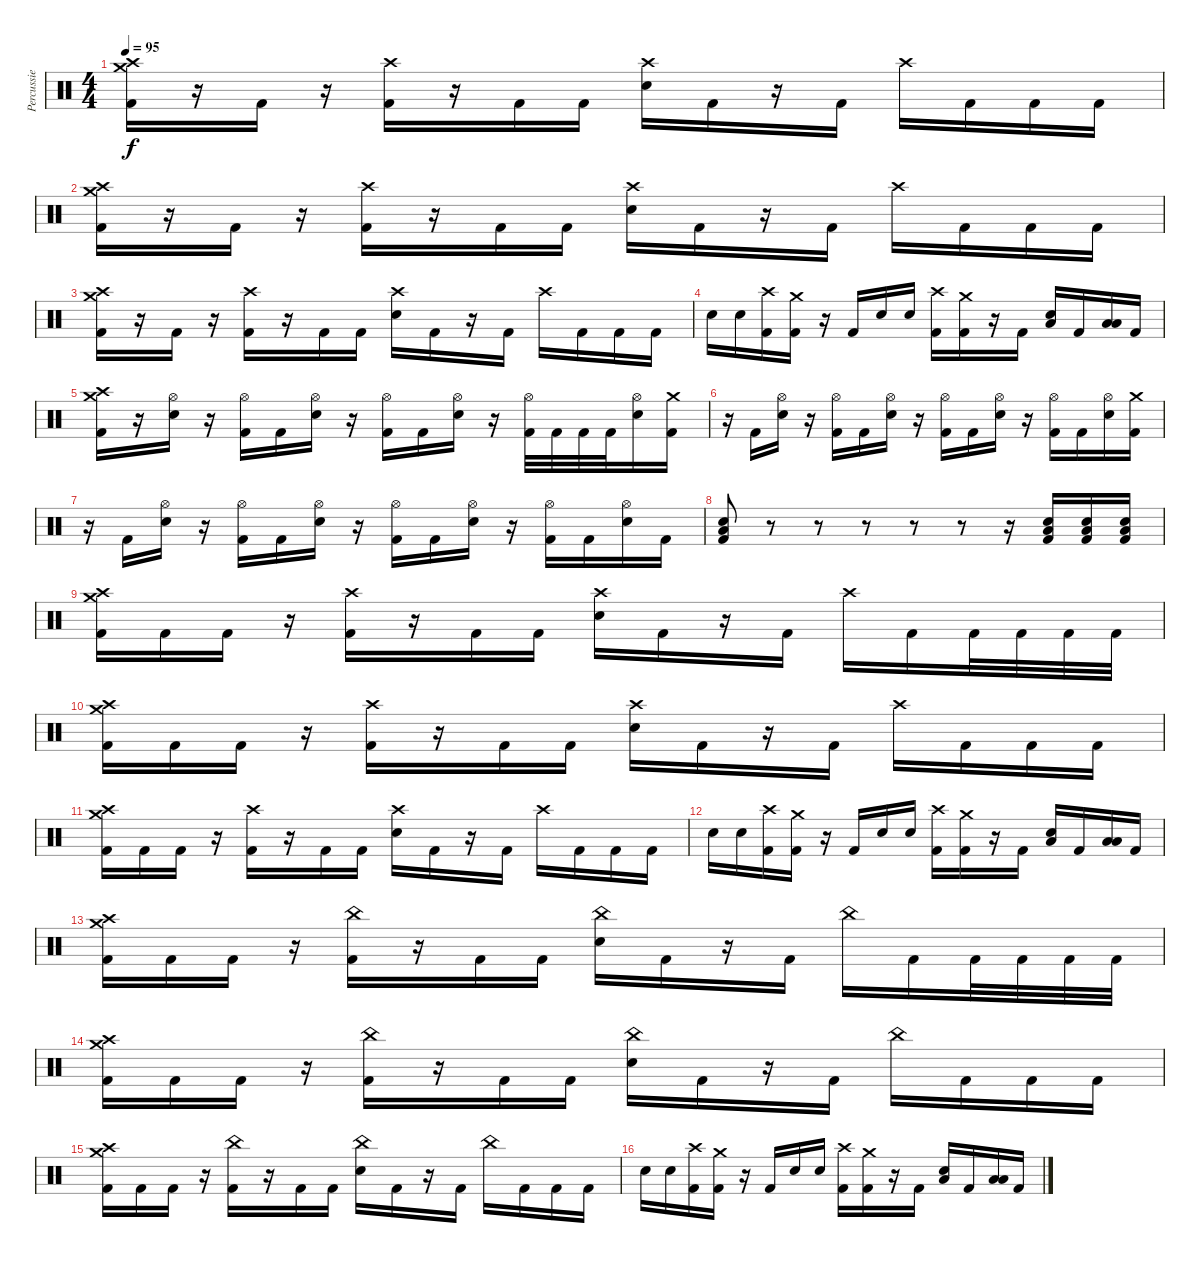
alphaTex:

\track ("Percussie" "Percussie") {instrument percussion}
\staff {score}
\articulation defaults
\ts (4 4)
\tempo 95
\clef neutral
\ks c
("Crash medium (hit)" "Crash high (hit)" "Kick (hit) 2").16{dy f} r.16 "Kick (hit) 2".16 r.16 ("Crash high (hit)" "Kick (hit) 2").16 r.16 "Kick (hit) 2".16 "Kick (hit) 2".16 ("Crash high (hit)" "Electric Snare (hit)").16 "Kick (hit) 2".16 r.16 "Kick (hit) 2".16 "Crash high (hit)".16 "Kick (hit) 2".16 "Kick (hit) 2".16 "Kick (hit) 2".16 |
("Crash medium (hit)" "Crash high (hit)" "Kick (hit) 2").16 r.16 "Kick (hit) 2".16 r.16 ("Crash high (hit)" "Kick (hit) 2").16 r.16 "Kick (hit) 2".16 "Kick (hit) 2".16 ("Crash high (hit)" "Electric Snare (hit)").16 "Kick (hit) 2".16 r.16 "Kick (hit) 2".16 "Crash high (hit)".16 "Kick (hit) 2".16 "Kick (hit) 2".16 "Kick (hit) 2".16 |
("Crash medium (hit)" "Crash high (hit)" "Kick (hit) 2").16 r.16 "Kick (hit) 2".16 r.16 ("Crash high (hit)" "Kick (hit) 2").16 r.16 "Kick (hit) 2".16 "Kick (hit) 2".16 ("Crash high (hit)" "Electric Snare (hit)").16 "Kick (hit) 2".16 r.16 "Kick (hit) 2".16 "Crash high (hit)".16 "Kick (hit) 2".16 "Kick (hit) 2".16 "Kick (hit) 2".16 |
"Electric Snare (hit)".16 "Electric Snare (hit)".16 ("Crash high (hit)" "Kick (hit) 2").16 ("Crash medium (hit)" "Kick (hit) 2").16 r.16 "Kick (hit) 2".16 "Electric Snare (hit)".16 "Electric Snare (hit)".16 ("Crash high (hit)" "Kick (hit) 2").16 ("Crash medium (hit)" "Kick (hit) 2").16 r.16 "Kick (hit) 2".16 ("Low Floor Tom (hit)" "Electric Snare (hit)").16 "Kick (hit) 2".16 ("Low Tom (hit)" "Low Floor Tom (hit)").16 "Kick (hit) 2".16 |
("Crash medium (hit)" "Crash high (hit)" "Kick (hit) 2").16 r.16 ("Hi-Hat (open)" "Electric Snare (hit)").16 r.16 ("Hi-Hat (open)" "Kick (hit) 2").16 "Kick (hit) 2".16 ("Hi-Hat (open)" "Electric Snare (hit)").16 r.16 ("Hi-Hat (open)" "Kick (hit) 2").16 "Kick (hit) 2".16 ("Hi-Hat (open)" "Electric Snare (hit)").16 r.16 ("Hi-Hat (open)" "Kick (hit) 2").32 "Kick (hit) 2".32 "Kick (hit) 2".32 "Kick (hit) 2".32 ("Hi-Hat (open)" "Electric Snare (hit)").16 ("Crash medium (hit)" "Kick (hit) 2").16 |
r.16 "Kick (hit) 2".16 ("Hi-Hat (open)" "Electric Snare (hit)").16 r.16 ("Hi-Hat (open)" "Kick (hit) 2").16 "Kick (hit) 2".16 ("Hi-Hat (open)" "Electric Snare (hit)").16 r.16 ("Hi-Hat (open)" "Kick (hit) 2").16 "Kick (hit) 2".16 ("Hi-Hat (open)" "Electric Snare (hit)").16 r.16 ("Hi-Hat (open)" "Kick (hit) 2").16 "Kick (hit) 2".16 ("Hi-Hat (open)" "Electric Snare (hit)").16 ("Crash medium (hit)" "Kick (hit) 2").16 |
r.16 "Kick (hit) 2".16 ("Hi-Hat (open)" "Electric Snare (hit)").16 r.16 ("Hi-Hat (open)" "Kick (hit) 2").16 "Kick (hit) 2".16 ("Hi-Hat (open)" "Electric Snare (hit)").16 r.16 ("Hi-Hat (open)" "Kick (hit) 2").16 "Kick (hit) 2".16 ("Hi-Hat (open)" "Electric Snare (hit)").16 r.16 ("Hi-Hat (open)" "Kick (hit) 2").16 "Kick (hit) 2".16 ("Hi-Hat (open)" "Electric Snare (hit)").16 "Kick (hit) 2".16 |
("Low Floor Tom (hit)" "Electric Snare (hit)" "Kick (hit) 2").8 r.8 r.8 r.8 r.8 r.8 r.16 ("Electric Snare (hit)" "Low Floor Tom (hit)" "Kick (hit) 2").16 ("Electric Snare (hit)" "Low Floor Tom (hit)" "Kick (hit) 2").16 ("Electric Snare (hit)" "Low Floor Tom (hit)" "Kick (hit) 2").16 |
("Crash medium (hit)" "Crash high (hit)" "Kick (hit) 2").16 "Kick (hit) 2".16 "Kick (hit) 2".16 r.16 ("Crash high (hit)" "Kick (hit) 2").16 r.16 "Kick (hit) 2".16 "Kick (hit) 2".16 ("Crash high (hit)" "Electric Snare (hit)").16 "Kick (hit) 2".16 r.16 "Kick (hit) 2".16 "Crash high (hit)".16 "Kick (hit) 2".16 "Kick (hit) 2".32 "Kick (hit) 2".32 "Kick (hit) 2".32 "Kick (hit) 2".32 |
("Crash medium (hit)" "Crash high (hit)" "Kick (hit) 2").16 "Kick (hit) 2".16 "Kick (hit) 2".16 r.16 ("Crash high (hit)" "Kick (hit) 2").16 r.16 "Kick (hit) 2".16 "Kick (hit) 2".16 ("Crash high (hit)" "Electric Snare (hit)").16 "Kick (hit) 2".16 r.16 "Kick (hit) 2".16 "Crash high (hit)".16 "Kick (hit) 2".16 "Kick (hit) 2".16 "Kick (hit) 2".16 |
("Crash medium (hit)" "Crash high (hit)" "Kick (hit) 2").16 "Kick (hit) 2".16 "Kick (hit) 2".16 r.16 ("Crash high (hit)" "Kick (hit) 2").16 r.16 "Kick (hit) 2".16 "Kick (hit) 2".16 ("Crash high (hit)" "Electric Snare (hit)").16 "Kick (hit) 2".16 r.16 "Kick (hit) 2".16 "Crash high (hit)".16 "Kick (hit) 2".16 "Kick (hit) 2".16 "Kick (hit) 2".16 |
"Electric Snare (hit)".16 "Electric Snare (hit)".16 ("Crash high (hit)" "Kick (hit) 2").16 ("Crash medium (hit)" "Kick (hit) 2").16 r.16 "Kick (hit) 2".16 "Electric Snare (hit)".16 "Electric Snare (hit)".16 ("Crash high (hit)" "Kick (hit) 2").16 ("Crash medium (hit)" "Kick (hit) 2").16 r.16 "Kick (hit) 2".16 ("Low Floor Tom (hit)" "Electric Snare (hit)").16 "Kick (hit) 2".16 ("Low Tom (hit)" "Low Floor Tom (hit)").16 "Kick (hit) 2".16 |
("Crash medium (hit)" "Crash high (hit)" "Kick (hit) 2").16 "Kick (hit) 2".16 "Kick (hit) 2".16 r.16 ("China (hit)" "Kick (hit) 2").16 r.16 "Kick (hit) 2".16 "Kick (hit) 2".16 ("China (hit)" "Electric Snare (hit)").16 "Kick (hit) 2".16 r.16 "Kick (hit) 2".16 "China (hit)".16 "Kick (hit) 2".16 "Kick (hit) 2".32 "Kick (hit) 2".32 "Kick (hit) 2".32 "Kick (hit) 2".32 |
("Crash medium (hit)" "Crash high (hit)" "Kick (hit) 2").16 "Kick (hit) 2".16 "Kick (hit) 2".16 r.16 ("China (hit)" "Kick (hit) 2").16 r.16 "Kick (hit) 2".16 "Kick (hit) 2".16 ("China (hit)" "Electric Snare (hit)").16 "Kick (hit) 2".16 r.16 "Kick (hit) 2".16 "China (hit)".16 "Kick (hit) 2".16 "Kick (hit) 2".16 "Kick (hit) 2".16 |
("Crash medium (hit)" "Crash high (hit)" "Kick (hit) 2").16 "Kick (hit) 2".16 "Kick (hit) 2".16 r.16 ("China (hit)" "Kick (hit) 2").16 r.16 "Kick (hit) 2".16 "Kick (hit) 2".16 ("China (hit)" "Electric Snare (hit)").16 "Kick (hit) 2".16 r.16 "Kick (hit) 2".16 "China (hit)".16 "Kick (hit) 2".16 "Kick (hit) 2".16 "Kick (hit) 2".16 |
"Electric Snare (hit)".16 "Electric Snare (hit)".16 ("Crash high (hit)" "Kick (hit) 2").16 ("Crash medium (hit)" "Kick (hit) 2").16 r.16 "Kick (hit) 2".16 "Electric Snare (hit)".16 "Electric Snare (hit)".16 ("Crash high (hit)" "Kick (hit) 2").16 ("Crash medium (hit)" "Kick (hit) 2").16 r.16 "Kick (hit) 2".16 ("Low Floor Tom (hit)" "Electric Snare (hit)").16 "Kick (hit) 2".16 ("Low Tom (hit)" "Low Floor Tom (hit)").16 "Kick (hit) 2".16
